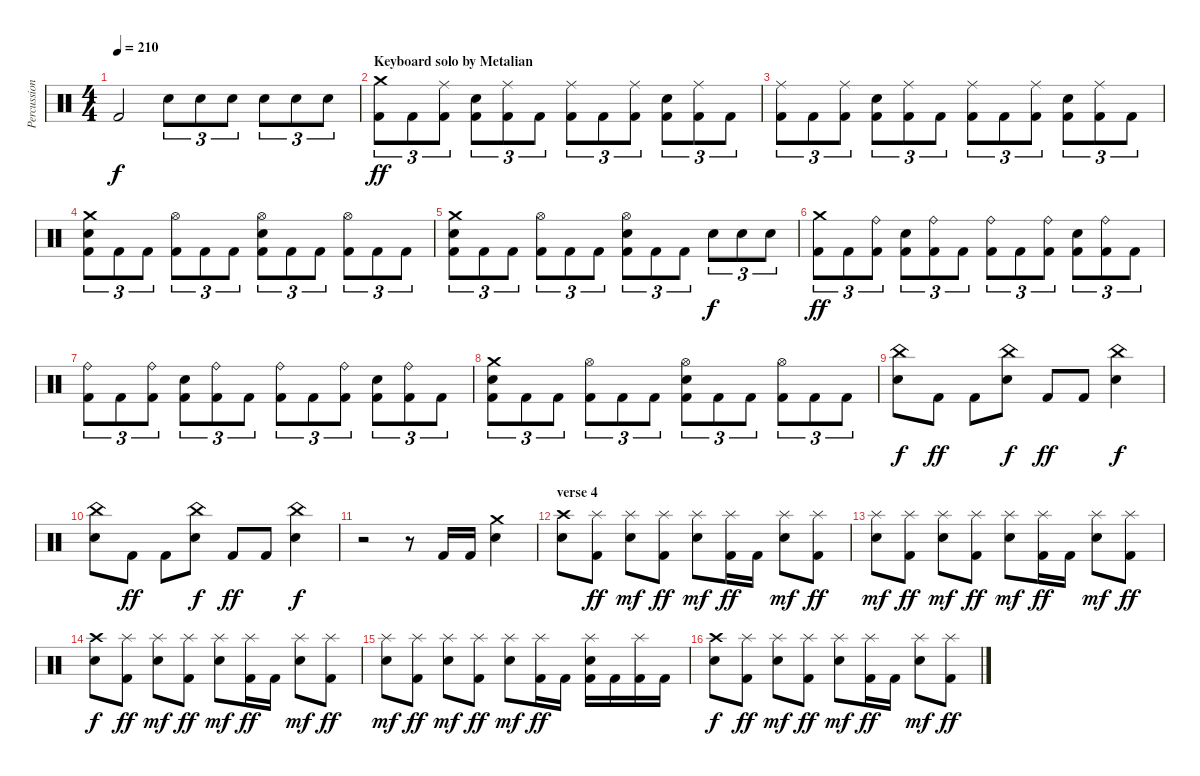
\track ("Percussion" "Percussion") {instrument percussion}
\staff {score}
\articulation defaults
\ts (4 4)
\tempo 210
\clef neutral
\ks c "Kick (hit) 2".2{dy f} "Snare (hit) 2".8{tu (3 2)} "Snare (hit) 2".8{tu (3 2)} "Snare (hit) 2".8{tu (3 2)} "Snare (hit) 2".8{tu (3 2)} "Snare (hit) 2".8{tu (3 2)} "Snare (hit) 2".8{tu (3 2)}
|
\section ("" "Keyboard solo by Metalian")
("Crash medium (hit)" "Kick (hit) 2").8{tu (3 2) dy ff} "Kick (hit) 2".8{tu (3 2)} ("Ride (middle)" "Kick (hit) 2").8{tu (3 2)} ("Snare (hit) 2" "Kick (hit) 2").8{tu (3 2)} ("Ride (middle)" "Kick (hit) 2").8{tu (3 2)} "Kick (hit) 2".8{tu (3 2)} ("Ride (middle)" "Kick (hit) 2").8{tu (3 2)} "Kick (hit) 2".8{tu (3 2)} ("Ride (middle)" "Kick (hit) 2").8{tu (3 2)} ("Snare (hit) 2" "Kick (hit) 2").8{tu (3 2)} ("Ride (middle)" "Kick (hit) 2").8{tu (3 2)} "Kick (hit) 2".8{tu (3 2)} |
("Ride (middle)" "Kick (hit) 2").8{tu (3 2)} "Kick (hit) 2".8{tu (3 2)} ("Ride (middle)" "Kick (hit) 2").8{tu (3 2)} ("Snare (hit) 2" "Kick (hit) 2").8{tu (3 2)} ("Ride (middle)" "Kick (hit) 2").8{tu (3 2)} "Kick (hit) 2".8{tu (3 2)} ("Ride (middle)" "Kick (hit) 2").8{tu (3 2)} "Kick (hit) 2".8{tu (3 2)} ("Ride (middle)" "Kick (hit) 2").8{tu (3 2)} ("Snare (hit) 2" "Kick (hit) 2").8{tu (3 2)} ("Ride (middle)" "Kick (hit) 2").8{tu (3 2)} "Kick (hit) 2".8{tu (3 2)} |
("Crash medium (hit)" "Snare (hit) 2" "Kick (hit) 2").8{tu (3 2)} "Kick (hit) 2".8{tu (3 2)} "Kick (hit) 2".8{tu (3 2)} ("Hi-Hat (open)" "Kick (hit) 2").8{tu (3 2)} "Kick (hit) 2".8{tu (3 2)} "Kick (hit) 2".8{tu (3 2)} ("Hi-Hat (open)" "Snare (hit) 2" "Kick (hit) 2").8{tu (3 2)} "Kick (hit) 2".8{tu (3 2)} "Kick (hit) 2".8{tu (3 2)} ("Hi-Hat (open)" "Kick (hit) 2").8{tu (3 2)} "Kick (hit) 2".8{tu (3 2)} "Kick (hit) 2".8{tu (3 2)} |
("Crash medium (hit)" "Snare (hit) 2" "Kick (hit) 2").8{tu (3 2)} "Kick (hit) 2".8{tu (3 2)} "Kick (hit) 2".8{tu (3 2)} ("Hi-Hat (open)" "Kick (hit) 2").8{tu (3 2)} "Kick (hit) 2".8{tu (3 2)} "Kick (hit) 2".8{tu (3 2)} ("Hi-Hat (open)" "Snare (hit) 2" "Kick (hit) 2").8{tu (3 2)} "Kick (hit) 2".8{tu (3 2)} "Kick (hit) 2".8{tu (3 2)} "Snare (hit) 2".8{tu (3 2) dy f} "Snare (hit) 2".8{tu (3 2)} "Snare (hit) 2".8{tu (3 2)} |
("Crash medium (hit)" "Kick (hit) 2").8{tu (3 2) dy ff} "Kick (hit) 2".8{tu (3 2)} ("Ride (bell)" "Kick (hit) 2").8{tu (3 2)} ("Snare (hit) 2" "Kick (hit) 2").8{tu (3 2)} ("Ride (bell)" "Kick (hit) 2").8{tu (3 2)} "Kick (hit) 2".8{tu (3 2)} ("Ride (bell)" "Kick (hit) 2").8{tu (3 2)} "Kick (hit) 2".8{tu (3 2)} ("Ride (bell)" "Kick (hit) 2").8{tu (3 2)} ("Snare (hit) 2" "Kick (hit) 2").8{tu (3 2)} ("Ride (bell)" "Kick (hit) 2").8{tu (3 2)} "Kick (hit) 2".8{tu (3 2)} |
("Ride (bell)" "Kick (hit) 2").8{tu (3 2)} "Kick (hit) 2".8{tu (3 2)} ("Ride (bell)" "Kick (hit) 2").8{tu (3 2)} ("Snare (hit) 2" "Kick (hit) 2").8{tu (3 2)} ("Ride (bell)" "Kick (hit) 2").8{tu (3 2)} "Kick (hit) 2".8{tu (3 2)} ("Ride (bell)" "Kick (hit) 2").8{tu (3 2)} "Kick (hit) 2".8{tu (3 2)} ("Ride (bell)" "Kick (hit) 2").8{tu (3 2)} ("Snare (hit) 2" "Kick (hit) 2").8{tu (3 2)} ("Ride (bell)" "Kick (hit) 2").8{tu (3 2)} "Kick (hit) 2".8{tu (3 2)} |
("Crash medium (hit)" "Snare (hit) 2" "Kick (hit) 2").8{tu (3 2)} "Kick (hit) 2".8{tu (3 2)} "Kick (hit) 2".8{tu (3 2)} ("Hi-Hat (open)" "Kick (hit) 2").8{tu (3 2)} "Kick (hit) 2".8{tu (3 2)} "Kick (hit) 2".8{tu (3 2)} ("Hi-Hat (open)" "Snare (hit) 2" "Kick (hit) 2").8{tu (3 2)} "Kick (hit) 2".8{tu (3 2)} "Kick (hit) 2".8{tu (3 2)} ("Hi-Hat (open)" "Kick (hit) 2").8{tu (3 2)} "Kick (hit) 2".8{tu (3 2)} "Kick (hit) 2".8{tu (3 2)} |
("China (hit)" "Snare (hit) 2").8{dy f} "Kick (hit) 2".8{dy ff} "Kick (hit) 2".8 ("China (hit)" "Snare (hit) 2").8{dy f} "Kick (hit) 2".8{dy ff} "Kick (hit) 2".8 ("China (hit)" "Snare (hit) 2").4{dy f} |
("China (hit)" "Snare (hit) 2").8 "Kick (hit) 2".8{dy ff} "Kick (hit) 2".8 ("China (hit)" "Snare (hit) 2").8{dy f} "Kick (hit) 2".8{dy ff} "Kick (hit) 2".8 ("China (hit)" "Snare (hit) 2").4{dy f} |
r.2 r.8 "Kick (hit) 2".16 "Kick (hit) 2".16 ("Crash medium (hit)" "Snare (hit) 2").4 |
\section ("" "verse 4")
("Crash high (hit)" "Snare (hit) 2").8 ("Splash (hit)" "Kick (hit) 2").8{dy ff} ("Splash (hit)" "Snare (hit) 2").8{dy mf} ("Splash (hit)" "Kick (hit) 2").8{dy ff} ("Splash (hit)" "Snare (hit) 2").8{dy mf} ("Splash (hit)" "Kick (hit) 2").16{dy ff} "Kick (hit) 2".16 ("Splash (hit)" "Snare (hit) 2").8{dy mf} ("Splash (hit)" "Kick (hit) 2").8{dy ff} |
("Splash (hit)" "Snare (hit) 2").8{dy mf} ("Splash (hit)" "Kick (hit) 2").8{dy ff} ("Splash (hit)" "Snare (hit) 2").8{dy mf} ("Splash (hit)" "Kick (hit) 2").8{dy ff} ("Splash (hit)" "Snare (hit) 2").8{dy mf} ("Splash (hit)" "Kick (hit) 2").16{dy ff} "Kick (hit) 2".16 ("Splash (hit)" "Snare (hit) 2").8{dy mf} ("Splash (hit)" "Kick (hit) 2").8{dy ff} |
("Crash high (hit)" "Snare (hit) 2").8{dy f} ("Splash (hit)" "Kick (hit) 2").8{dy ff} ("Splash (hit)" "Snare (hit) 2").8{dy mf} ("Splash (hit)" "Kick (hit) 2").8{dy ff} ("Splash (hit)" "Snare (hit) 2").8{dy mf} ("Splash (hit)" "Kick (hit) 2").16{dy ff} "Kick (hit) 2".16 ("Splash (hit)" "Snare (hit) 2").8{dy mf} ("Splash (hit)" "Kick (hit) 2").8{dy ff} |
("Splash (hit)" "Snare (hit) 2").8{dy mf} ("Splash (hit)" "Kick (hit) 2").8{dy ff} ("Splash (hit)" "Snare (hit) 2").8{dy mf} ("Splash (hit)" "Kick (hit) 2").8{dy ff} ("Splash (hit)" "Snare (hit) 2").8{dy mf} ("Splash (hit)" "Kick (hit) 2").16{dy ff} "Kick (hit) 2".16 ("Splash (hit)" "Snare (hit) 2" "Kick (hit) 2").16 "Kick (hit) 2".16 ("Splash (hit)" "Kick (hit) 2").16 "Kick (hit) 2".16 |
("Crash high (hit)" "Snare (hit) 2").8{dy f} ("Splash (hit)" "Kick (hit) 2").8{dy ff} ("Splash (hit)" "Snare (hit) 2").8{dy mf} ("Splash (hit)" "Kick (hit) 2").8{dy ff} ("Splash (hit)" "Snare (hit) 2").8{dy mf} ("Splash (hit)" "Kick (hit) 2").16{dy ff} "Kick (hit) 2".16 ("Splash (hit)" "Snare (hit) 2").8{dy mf} ("Splash (hit)" "Kick (hit) 2").8{dy ff}
